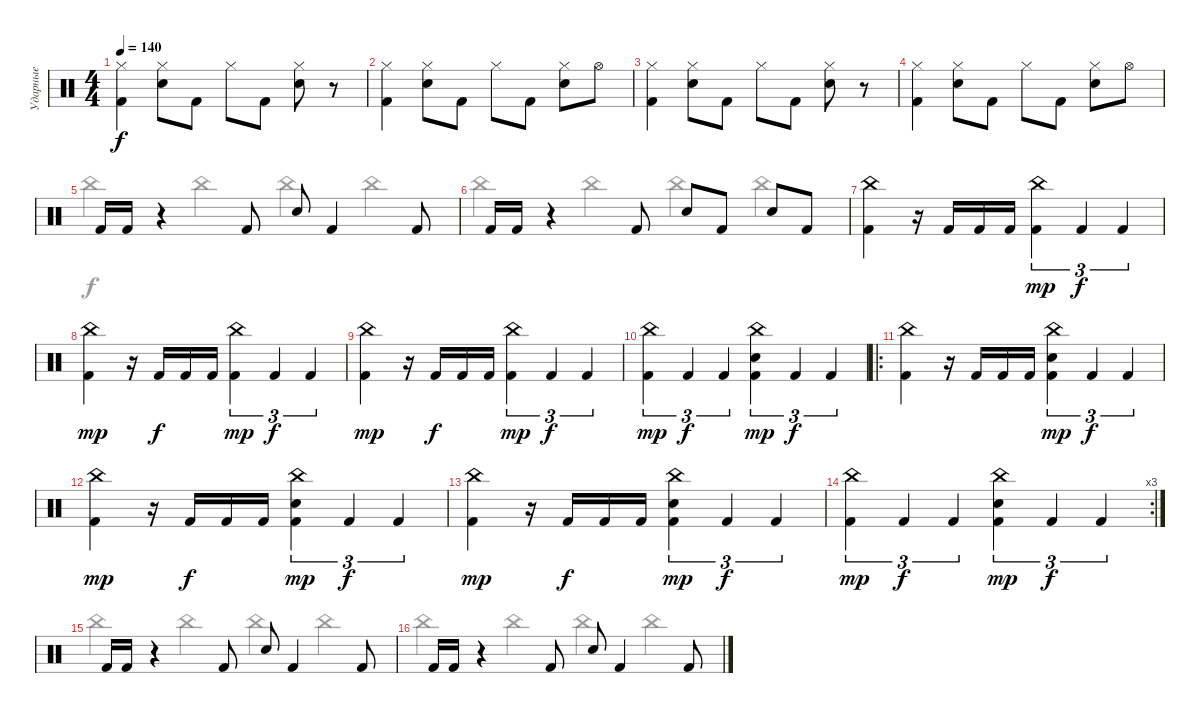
\track ("Ударные" "Ударные") {instrument percussion}
\staff {score}
\articulation defaults
\voice
\ts (4 4)
\tempo 140
\clef neutral
\ks c
("Hi-Hat (closed)" "Kick (hit) 2").4{dy f} ("Hi-Hat (closed)" "Electric Snare (hit)").8 "Kick (hit) 2".8 "Hi-Hat (closed)".8 "Kick (hit) 2".8 ("Hi-Hat (closed)" "Electric Snare (hit)").8 r.8 |
("Hi-Hat (closed)" "Kick (hit) 2").4 ("Hi-Hat (closed)" "Electric Snare (hit)").8 "Kick (hit) 2".8 "Hi-Hat (closed)".8 "Kick (hit) 2".8 ("Hi-Hat (closed)" "Electric Snare (hit)").8 "Hi-Hat (open)".8 |
("Hi-Hat (closed)" "Kick (hit) 2").4 ("Hi-Hat (closed)" "Electric Snare (hit)").8 "Kick (hit) 2".8 "Hi-Hat (closed)".8 "Kick (hit) 2".8 ("Hi-Hat (closed)" "Electric Snare (hit)").8 r.8 |
("Hi-Hat (closed)" "Kick (hit) 2").4 ("Hi-Hat (closed)" "Electric Snare (hit)").8 "Kick (hit) 2".8 "Hi-Hat (closed)".8 "Kick (hit) 2".8 ("Hi-Hat (closed)" "Electric Snare (hit)").8 "Hi-Hat (open)".8 |
"Kick (hit) 2".16 "Kick (hit) 2".16 r.4 "Kick (hit) 2".8 "Electric Snare (hit)".8 "Kick (hit) 2".4 "Kick (hit) 2".8 |
"Kick (hit) 2".16 "Kick (hit) 2".16 r.4 "Kick (hit) 2".8 "Electric Snare (hit)".8 "Kick (hit) 2".8 "Electric Snare (hit)".8 "Kick (hit) 2".8 |
("Kick (hit) 2" "China (hit)").4 r.16 "Kick (hit) 2".16 "Kick (hit) 2".16 "Kick (hit) 2".16 ("China (hit)" "Kick (hit) 2").4{tu (3 2) dy mp} "Kick (hit) 2".4{tu (3 2) dy f} "Kick (hit) 2".4{tu (3 2)} |
("Kick (hit) 2" "China (hit)").4{dy mp} r.16 "Kick (hit) 2".16{dy f} "Kick (hit) 2".16 "Kick (hit) 2".16 ("China (hit)" "Kick (hit) 2").4{tu (3 2) dy mp} "Kick (hit) 2".4{tu (3 2) dy f} "Kick (hit) 2".4{tu (3 2)} |
("Kick (hit) 2" "China (hit)").4{dy mp} r.16 "Kick (hit) 2".16{dy f} "Kick (hit) 2".16 "Kick (hit) 2".16 ("China (hit)" "Kick (hit) 2").4{tu (3 2) dy mp} "Kick (hit) 2".4{tu (3 2) dy f} "Kick (hit) 2".4{tu (3 2)} |
("China (hit)" "Kick (hit) 2").4{tu (3 2) dy mp} "Kick (hit) 2".4{tu (3 2) dy f} "Kick (hit) 2".4{tu (3 2)} ("China (hit)" "Kick (hit) 2" "Electric Snare (hit)").4{tu (3 2) dy mp} "Kick (hit) 2".4{tu (3 2) dy f} "Kick (hit) 2".4{tu (3 2)} |
\ro
("Kick (hit) 2" "China (hit)").4 r.16 "Kick (hit) 2".16 "Kick (hit) 2".16 "Kick (hit) 2".16 ("China (hit)" "Kick (hit) 2" "Electric Snare (hit)").4{tu (3 2) dy mp} "Kick (hit) 2".4{tu (3 2) dy f} "Kick (hit) 2".4{tu (3 2)} |
("Kick (hit) 2" "China (hit)").4{dy mp} r.16 "Kick (hit) 2".16{dy f} "Kick (hit) 2".16 "Kick (hit) 2".16 ("China (hit)" "Kick (hit) 2" "Electric Snare (hit)").4{tu (3 2) dy mp} "Kick (hit) 2".4{tu (3 2) dy f} "Kick (hit) 2".4{tu (3 2)} |
("Kick (hit) 2" "China (hit)").4{dy mp} r.16 "Kick (hit) 2".16{dy f} "Kick (hit) 2".16 "Kick (hit) 2".16 ("China (hit)" "Kick (hit) 2" "Electric Snare (hit)").4{tu (3 2) dy mp} "Kick (hit) 2".4{tu (3 2) dy f} "Kick (hit) 2".4{tu (3 2)} |
\rc 3
("China (hit)" "Kick (hit) 2").4{tu (3 2) dy mp} "Kick (hit) 2".4{tu (3 2) dy f} "Kick (hit) 2".4{tu (3 2)} ("China (hit)" "Kick (hit) 2" "Electric Snare (hit)").4{tu (3 2) dy mp} "Kick (hit) 2".4{tu (3 2) dy f} "Kick (hit) 2".4{tu (3 2)} |
"Kick (hit) 2".16 "Kick (hit) 2".16 r.4 "Kick (hit) 2".8 "Electric Snare (hit)".8 "Kick (hit) 2".4 "Kick (hit) 2".8 |
"Kick (hit) 2".16 "Kick (hit) 2".16 r.4 "Kick (hit) 2".8 "Electric Snare (hit)".8 "Kick (hit) 2".4 "Kick (hit) 2".8
\voice
\clef neutral
\ottava regular
\simile none
\ks c
|
|
|
|
"China (hit)".4 "China (hit)".4 "China (hit)".4 "China (hit)".4 |
"China (hit)".4 "China (hit)".4 "China (hit)".4 "China (hit)".4 |
|
|
|
|
|
|
|
|
"China (hit)".4 "China (hit)".4 "China (hit)".4 "China (hit)".4 |
"China (hit)".4 "China (hit)".4 "China (hit)".4 "China (hit)".4
